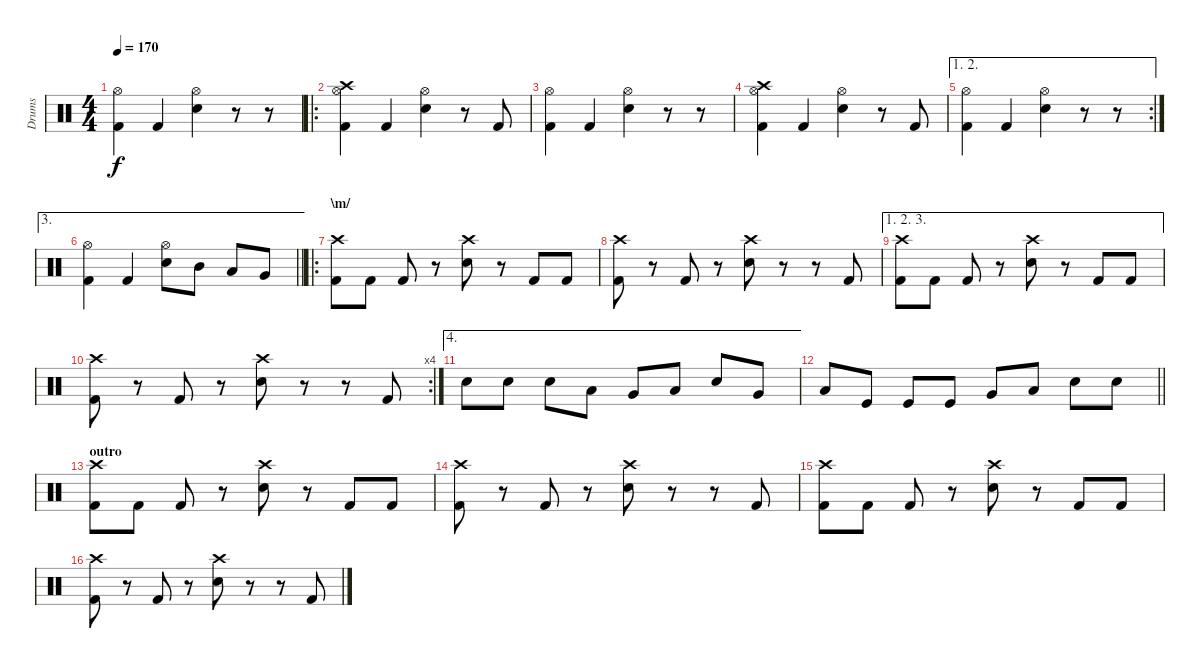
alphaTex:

\track ("Drums" "Drums") {instrument percussion}
\staff {score}
\articulation defaults
\ts (4 4)
\tempo 170
\clef neutral
\ks c
("Hi-Hat (open)" "Kick (hit) 2").4{dy f} "Kick (hit) 2".4 ("Hi-Hat (open)" "Snare (hit) 2").4 r.8 r.8 |
\ro
("Hi-Hat (open)" "Crash high (hit)" "Kick (hit) 2").4 "Kick (hit) 2".4 ("Hi-Hat (open)" "Snare (hit) 2").4 r.8 "Kick (hit) 2".8 |
("Hi-Hat (open)" "Kick (hit) 2").4 "Kick (hit) 2".4 ("Hi-Hat (open)" "Snare (hit) 2").4 r.8 r.8 |
("Hi-Hat (open)" "Crash high (hit)" "Kick (hit) 2").4 "Kick (hit) 2".4 ("Hi-Hat (open)" "Snare (hit) 2").4 r.8 "Kick (hit) 2".8 |
\ae (1 2)
\rc 2
("Hi-Hat (open)" "Kick (hit) 2").4 "Kick (hit) 2".4 ("Hi-Hat (open)" "Snare (hit) 2").4 r.8 r.8 |
\ae 3
\barLineRight lightlight
("Hi-Hat (open)" "Kick (hit) 2").4 "Kick (hit) 2".4 ("Hi-Hat (open)" "Snare (hit) 2").8 "Mid Tom (hit)".8 "Low Tom (hit)".8 "Very Low Tom (hit)".8 |
\ro
\section ("" "\\m/")
("Crash high (hit)" "Kick (hit) 2").8 "Kick (hit) 2".8 "Kick (hit) 2".8 r.8 ("Crash high (hit)" "Snare (hit) 2").8 r.8 "Kick (hit) 2".8 "Kick (hit) 2".8 |
("Crash high (hit)" "Kick (hit) 2").8 r.8 "Kick (hit) 2".8 r.8 ("Crash high (hit)" "Snare (hit) 2").8 r.8 r.8 "Kick (hit) 2".8 |
\ae (1 2 3)
("Crash high (hit)" "Kick (hit) 2").8 "Kick (hit) 2".8 "Kick (hit) 2".8 r.8 ("Crash high (hit)" "Snare (hit) 2").8 r.8 "Kick (hit) 2".8 "Kick (hit) 2".8 |
\rc 4
("Crash high (hit)" "Kick (hit) 2").8 r.8 "Kick (hit) 2".8 r.8 ("Crash high (hit)" "Snare (hit) 2").8 r.8 r.8 "Kick (hit) 2".8 |
\ae 4 "Snare (hit) 2".8 "Snare (hit) 2".8 "Snare (hit) 2".8 "Low Tom (hit)".8 "Very Low Tom (hit)".8 "Low Floor Tom (hit)".8 "Snare (hit) 2".8 "Very Low Tom (hit)".8
|
\barLineRight lightlight "Low Floor Tom (hit)".8 "Kick (hit)".8 "Kick (hit)".8 "Kick (hit)".8 "Very Low Tom (hit)".8 "Low Floor Tom (hit)".8 "Snare (hit) 2".8 "Snare (hit) 2".8
|
\section ("" "outro")
("Crash high (hit)" "Kick (hit) 2").8 "Kick (hit) 2".8 "Kick (hit) 2".8 r.8 ("Crash high (hit)" "Snare (hit) 2").8 r.8 "Kick (hit) 2".8 "Kick (hit) 2".8 |
("Crash high (hit)" "Kick (hit) 2").8 r.8 "Kick (hit) 2".8 r.8 ("Crash high (hit)" "Snare (hit) 2").8 r.8 r.8 "Kick (hit) 2".8 |
("Crash high (hit)" "Kick (hit) 2").8 "Kick (hit) 2".8 "Kick (hit) 2".8 r.8 ("Crash high (hit)" "Snare (hit) 2").8 r.8 "Kick (hit) 2".8 "Kick (hit) 2".8 |
("Crash high (hit)" "Kick (hit) 2").8 r.8 "Kick (hit) 2".8 r.8 ("Crash high (hit)" "Snare (hit) 2").8 r.8 r.8 "Kick (hit) 2".8
